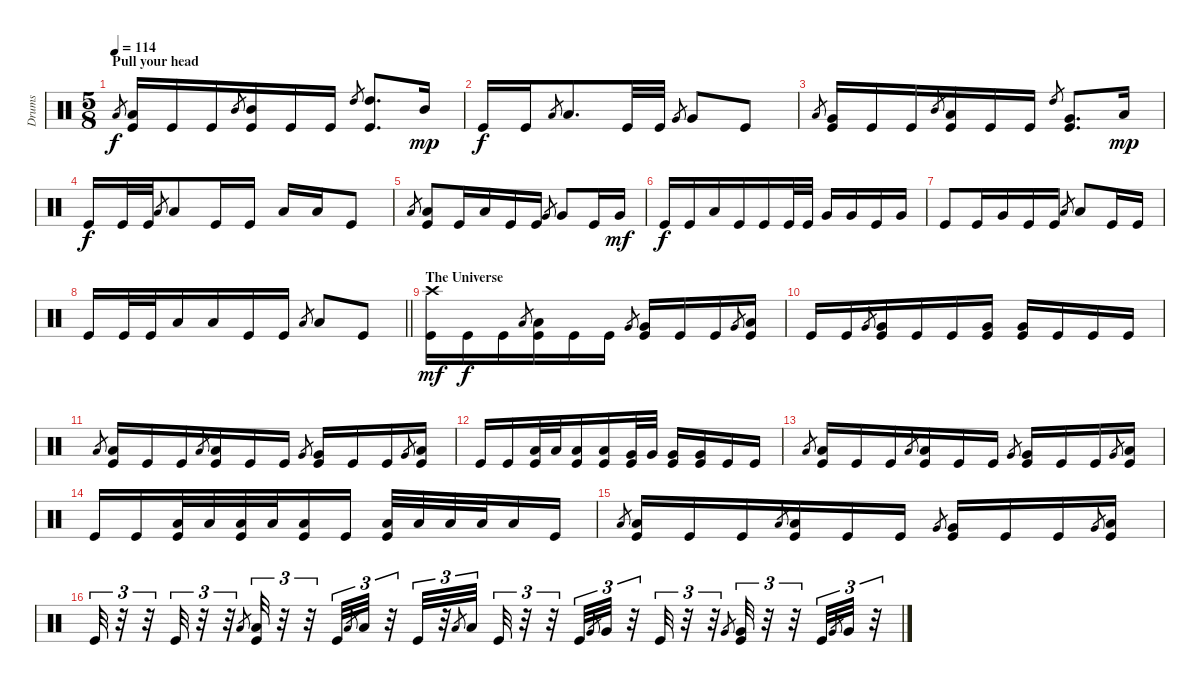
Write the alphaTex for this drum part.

\track ("Drums" "Drums") {instrument percussion}
\staff {score}
\articulation defaults
\ts (5 8)
\section ("" "Pull your head")
\tempo 114
\clef neutral
\ks c "Low Tom (hit)".8{gr dy f}
("Kick (hit)" "Low Tom (hit)").16 "Kick (hit)".16 "Kick (hit)".16 "Mid Tom (hit)".8{gr} ("Kick (hit)" "Mid Tom (hit)").16 "Kick (hit)".16 "Kick (hit)".16 "High Tom (hit)".8{gr} ("Kick (hit)" "High Tom (hit)").8{d} "Mid Tom (hit)".16{dy mp} |
"Kick (hit)".16{dy f} "Kick (hit)".16 "Low Tom (hit)".8{gr} "Low Tom (hit)".8{d} "Kick (hit)".32 "Kick (hit)".32 "Very Low Tom (hit)".8{gr} "Very Low Tom (hit)".8 "Kick (hit)".8 |
"Low Tom (hit)".8{gr} ("Kick (hit)" "Very Low Tom (hit)").16 "Kick (hit)".16 "Kick (hit)".16 "Mid Tom (hit)".8{gr} ("Kick (hit)" "Low Tom (hit)").16 "Kick (hit)".16 "Kick (hit)".16 "High Tom (hit)".8{gr} ("Kick (hit)" "Very Low Tom (hit)").8{d} "Low Tom (hit)".16{dy mp} |
"Kick (hit)".16{dy f} "Kick (hit)".32 "Kick (hit)".32 "Low Tom (hit)".8{gr} "Low Tom (hit)".8 "Kick (hit)".16 "Kick (hit)".16 "Low Tom (hit)".16 "Low Tom (hit)".16 "Kick (hit)".8 |
"Low Tom (hit)".8{gr} ("Kick (hit)" "Low Tom (hit)").8 "Kick (hit)".16 "Low Tom (hit)".16 "Kick (hit)".16 "Kick (hit)".16 "Very Low Tom (hit)".8{gr} "Very Low Tom (hit)".8 "Kick (hit)".16 "Very Low Tom (hit)".16{dy mf} |
"Kick (hit)".16{dy f} "Kick (hit)".16 "Low Floor Tom (hit)".16 "Kick (hit)".16 "Kick (hit)".16 "Kick (hit)".32 "Kick (hit)".32 "Very Low Tom (hit)".16 "Very Low Tom (hit)".16 "Kick (hit)".16 "Very Low Tom (hit)".16 |
"Kick (hit)".8 "Kick (hit)".16 "Very Low Tom (hit)".16 "Kick (hit)".16 "Kick (hit)".16 "Low Tom (hit)".8{gr} "Low Tom (hit)".8 "Kick (hit)".16 "Kick (hit)".16 |
\barLineRight lightlight "Kick (hit)".16 "Kick (hit)".32 "Kick (hit)".32 "Low Tom (hit)".16 "Low Tom (hit)".16 "Kick (hit)".16 "Kick (hit)".16 "Low Tom (hit)".8{gr} "Low Tom (hit)".8 "Kick (hit)".8
|
\section ("" "The Universe")
("Kick (hit)" "Crash high (hit)").16{dy mf} "Kick (hit)".16{dy f} "Kick (hit)".16 "Low Tom (hit)".8{gr} ("Kick (hit)" "Low Tom (hit)").16 "Kick (hit)".16 "Kick (hit)".16 "Very Low Tom (hit)".8{gr} ("Kick (hit)" "Very Low Tom (hit)").16 "Kick (hit)".16 "Kick (hit)".16 "Very Low Tom (hit)".8{gr} ("Kick (hit)" "Low Floor Tom (hit)").16 |
"Kick (hit)".16 "Kick (hit)".16 "Very Low Tom (hit)".8{gr} ("Kick (hit)" "Very Low Tom (hit)").16 "Kick (hit)".16 "Kick (hit)".16 ("Kick (hit)" "Very Low Tom (hit)").16 ("Kick (hit)" "Very Low Tom (hit)").16 "Kick (hit)".16 "Kick (hit)".16 "Kick (hit)".16 |
"Low Tom (hit)".8{gr} ("Kick (hit)" "Low Tom (hit)").16 "Kick (hit)".16 "Kick (hit)".16 "Low Tom (hit)".8{gr} ("Kick (hit)" "Low Tom (hit)").16 "Kick (hit)".16 "Kick (hit)".16 "Very Low Tom (hit)".8{gr} ("Kick (hit)" "Very Low Tom (hit)").16 "Kick (hit)".16 "Kick (hit)".16 "Very Low Tom (hit)".8{gr} ("Kick (hit)" "Low Floor Tom (hit)").16 |
"Kick (hit)".16 "Kick (hit)".16 ("Kick (hit)" "Low Tom (hit)").32 "Low Tom (hit)".32 ("Kick (hit)" "Low Tom (hit)").16 ("Kick (hit)" "Low Tom (hit)").16 ("Kick (hit)" "Very Low Tom (hit)").32 "Very Low Tom (hit)".32 ("Kick (hit)" "Very Low Tom (hit)").16 ("Kick (hit)" "Very Low Tom (hit)").16 "Kick (hit)".16 "Kick (hit)".16 |
"Low Tom (hit)".8{gr} ("Kick (hit)" "Low Tom (hit)").16 "Kick (hit)".16 "Kick (hit)".16 "Low Tom (hit)".8{gr} ("Kick (hit)" "Low Tom (hit)").16 "Kick (hit)".16 "Kick (hit)".16 "Very Low Tom (hit)".8{gr} ("Kick (hit)" "Very Low Tom (hit)").16 "Kick (hit)".16 "Kick (hit)".16 "Very Low Tom (hit)".8{gr} ("Kick (hit)" "Low Floor Tom (hit)").16 |
"Kick (hit)".16 "Kick (hit)".16 ("Kick (hit)" "Low Tom (hit)").32 "Low Tom (hit)".32 ("Kick (hit)" "Low Tom (hit)").32 "Low Tom (hit)".32 ("Kick (hit)" "Low Tom (hit)").16 "Kick (hit)".16 ("Kick (hit)" "Low Tom (hit)").32 "Low Tom (hit)".32 "Low Tom (hit)".32 "Low Tom (hit)".32 "Low Tom (hit)".16 "Kick (hit)".16 |
"Low Tom (hit)".8{gr} ("Kick (hit)" "Low Tom (hit)").16 "Kick (hit)".16 "Kick (hit)".16 "Low Tom (hit)".8{gr} ("Kick (hit)" "Low Tom (hit)").16 "Kick (hit)".16 "Kick (hit)".16 "Very Low Tom (hit)".8{gr} ("Kick (hit)" "Very Low Tom (hit)").16 "Kick (hit)".16 "Kick (hit)".16 "Very Low Tom (hit)".8{gr} ("Kick (hit)" "Low Floor Tom (hit)").16 |
"Kick (hit)".32{tu (3 2)} r.32{tu (3 2)} r.32{tu (3 2)} "Kick (hit)".32{tu (3 2)} r.32{tu (3 2)} r.32{tu (3 2)} "Low Tom (hit)".8{gr} ("Kick (hit)" "Low Tom (hit)").32{tu (3 2)} r.32{tu (3 2)} r.32{tu (3 2)} "Kick (hit)".32{tu (3 2)} "Low Tom (hit)".8{gr} "Low Tom (hit)".32{tu (3 2)} r.32{tu (3 2)} "Kick (hit)".32{tu (3 2)} r.32{tu (3 2)} "Low Tom (hit)".8{gr} "Low Tom (hit)".32{tu (3 2)} "Kick (hit)".32{tu (3 2)} r.32{tu (3 2)} r.32{tu (3 2)} "Kick (hit)".32{tu (3 2)} "Very Low Tom (hit)".8{gr} "Very Low Tom (hit)".32{tu (3 2)} r.32{tu (3 2)} "Kick (hit)".32{tu (3 2)} r.32{tu (3 2)} r.32{tu (3 2)} "Very Low Tom (hit)".8{gr} ("Kick (hit)" "Very Low Tom (hit)").32{tu (3 2)} r.32{tu (3 2)} r.32{tu (3 2)} "Kick (hit)".32{tu (3 2)} "Very Low Tom (hit)".8{gr} "Very Low Tom (hit)".32{tu (3 2)} r.32{tu (3 2)}
